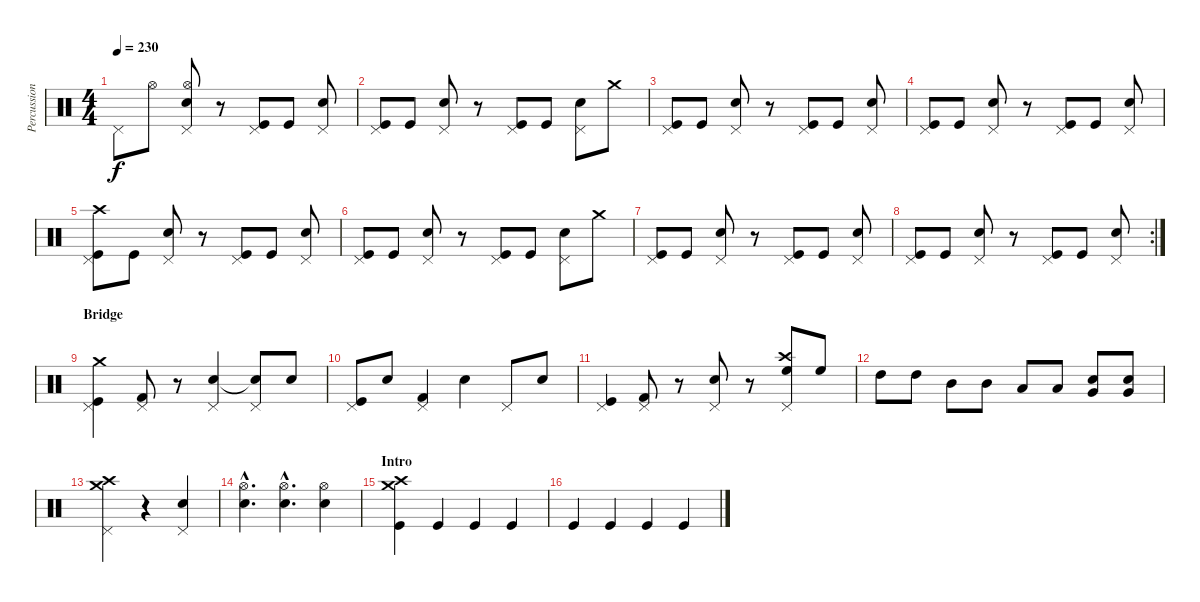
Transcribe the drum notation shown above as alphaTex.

\track ("Percussion" "Percussion") {instrument percussion}
\staff {score}
\articulation defaults
\ts (4 4)
\tempo 230
\clef neutral
\ks c "Pedal Hi-Hat (hit)".8{dy f} "Hi-Hat (open)".8
("Pedal Hi-Hat (hit)" "Hi-Hat (open)" "Electric Snare (hit)").8 r.8 ("Pedal Hi-Hat (hit)" "Kick (hit)").8 "Kick (hit)".8 ("Pedal Hi-Hat (hit)" "Electric Snare (hit)").8 |
("Pedal Hi-Hat (hit)" "Kick (hit)").8 "Kick (hit)".8 ("Pedal Hi-Hat (hit)" "Electric Snare (hit)").8 r.8 ("Pedal Hi-Hat (hit)" "Kick (hit)").8 "Kick (hit)".8 ("Pedal Hi-Hat (hit)" "Electric Snare (hit)").8 "Crash medium (hit)".8 |
("Pedal Hi-Hat (hit)" "Kick (hit)").8 "Kick (hit)".8 ("Pedal Hi-Hat (hit)" "Electric Snare (hit)").8 r.8 ("Pedal Hi-Hat (hit)" "Kick (hit)").8 "Kick (hit)".8 ("Pedal Hi-Hat (hit)" "Electric Snare (hit)").8 |
("Pedal Hi-Hat (hit)" "Kick (hit)").8 "Kick (hit)".8 ("Pedal Hi-Hat (hit)" "Electric Snare (hit)").8 r.8 ("Pedal Hi-Hat (hit)" "Kick (hit)").8 "Kick (hit)".8 ("Pedal Hi-Hat (hit)" "Electric Snare (hit)").8 |
("Pedal Hi-Hat (hit)" "Crash high (hit)" "Kick (hit)").8 "Kick (hit)".8 ("Pedal Hi-Hat (hit)" "Electric Snare (hit)").8 r.8 ("Pedal Hi-Hat (hit)" "Kick (hit)").8 "Kick (hit)".8 ("Pedal Hi-Hat (hit)" "Electric Snare (hit)").8 |
("Pedal Hi-Hat (hit)" "Kick (hit)").8 "Kick (hit)".8 ("Pedal Hi-Hat (hit)" "Electric Snare (hit)").8 r.8 ("Pedal Hi-Hat (hit)" "Kick (hit)").8 "Kick (hit)".8 ("Pedal Hi-Hat (hit)" "Electric Snare (hit)").8 "Crash medium (hit)".8 |
("Pedal Hi-Hat (hit)" "Kick (hit)").8 "Kick (hit)".8 ("Pedal Hi-Hat (hit)" "Electric Snare (hit)").8 r.8 ("Pedal Hi-Hat (hit)" "Kick (hit)").8 "Kick (hit)".8 ("Pedal Hi-Hat (hit)" "Electric Snare (hit)").8 |
\rc 2
("Pedal Hi-Hat (hit)" "Kick (hit)").8 "Kick (hit)".8 ("Pedal Hi-Hat (hit)" "Electric Snare (hit)").8 r.8 ("Pedal Hi-Hat (hit)" "Kick (hit)").8 "Kick (hit)".8 ("Pedal Hi-Hat (hit)" "Electric Snare (hit)").8 |
\section ("" "Bridge")
("Crash medium (hit)" "Pedal Hi-Hat (hit)" "Kick (hit)").4 ("Pedal Hi-Hat (hit)" "Kick (hit) 2").8 r.8 ("Pedal Hi-Hat (hit)" "Electric Snare (hit)").4 ("Pedal Hi-Hat (hit)" "Electric Snare (hit)"{t}).8 "Electric Snare (hit)".8 |
("Pedal Hi-Hat (hit)" "Kick (hit)").8 "Snare (hit) 2".8 ("Pedal Hi-Hat (hit)" "Kick (hit) 2").4 "Electric Snare (hit)".4 "Pedal Hi-Hat (hit)".8 "Snare (hit) 2".8 |
("Pedal Hi-Hat (hit)" "Kick (hit)").4 ("Pedal Hi-Hat (hit)" "Kick (hit) 2").8 r.8 ("Pedal Hi-Hat (hit)" "Electric Snare (hit)").8 r.8 ("High Floor Tom (hit)" "Pedal Hi-Hat (hit)" "Crash high (hit)").8 "High Floor Tom (hit)".8 |
"High Tom (hit)".8 "High Tom (hit)".8 "Mid Tom (hit)".8 "Mid Tom (hit)".8 "Low Tom (hit)".8 "Low Tom (hit)".8 ("Very Low Tom (hit)" "Electric Snare (hit)").8 ("Very Low Tom (hit)" "Electric Snare (hit)").8 |
("Crash high (hit)" "Crash medium (hit)" "Pedal Hi-Hat (hit)").4 r.4 ("Pedal Hi-Hat (hit)" "Electric Snare (hit)").4 |
("Hi-Hat (open)"{hac} "Electric Snare (hit)"{hac}).4{d} ("Hi-Hat (open)"{hac} "Electric Snare (hit)"{hac}).4{d} ("Hi-Hat (open)" "Electric Snare (hit)").4 |
\section ("" "Intro")
("Crash high (hit)" "Crash medium (hit)" "Kick (hit)").4 "Kick (hit)".4 "Kick (hit)".4 "Kick (hit)".4 |
"Kick (hit)".4 "Kick (hit)".4 "Kick (hit)".4 "Kick (hit)".4
